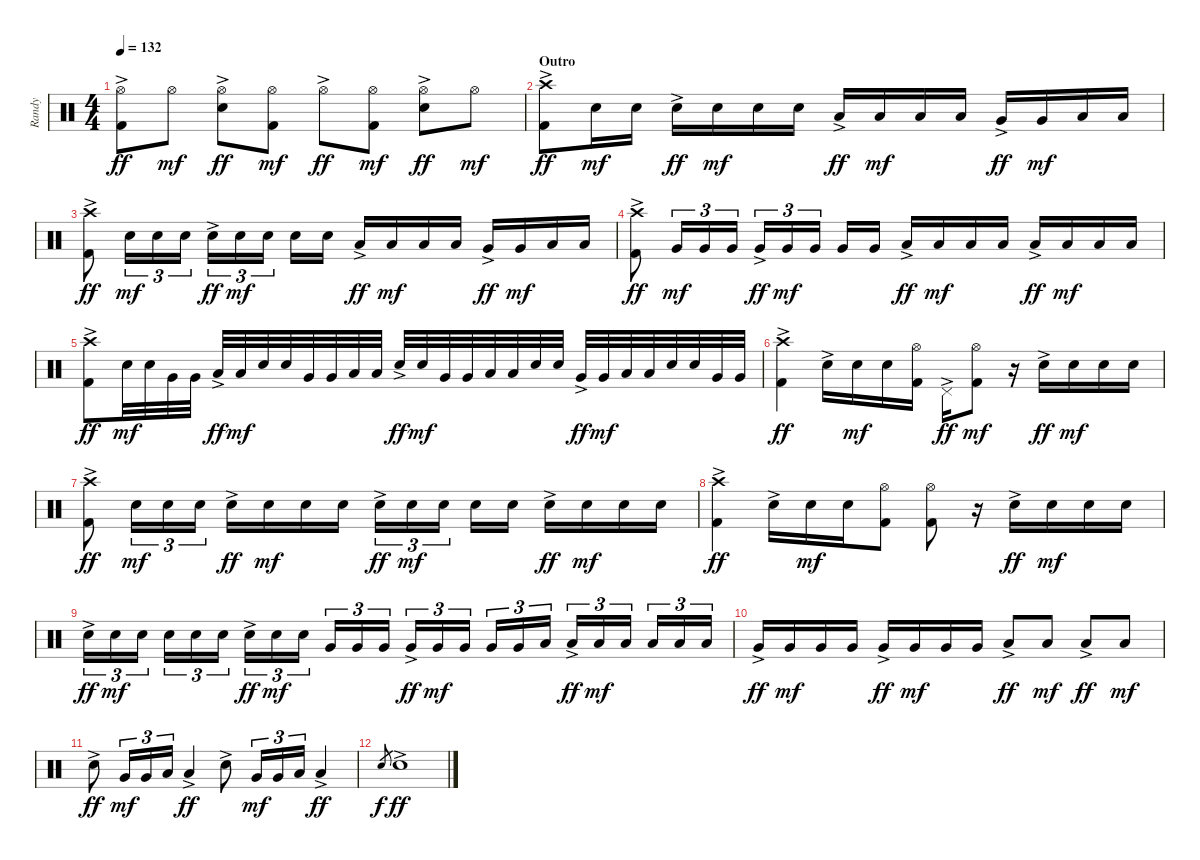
\track ("Randy" "Randy") {instrument percussion}
\staff {score}
\articulation defaults
\ts (4 4)
\tempo 132
\clef neutral
\ks c
("Hi-Hat (open)"{ac} "Kick (hit) 2").8{dy ff} "Hi-Hat (open)".8{dy mf} ("Hi-Hat (open)"{ac} "Snare (hit) 2").8{dy ff} ("Hi-Hat (open)" "Kick (hit) 2").8{dy mf} "Hi-Hat (open)"{ac}.8{dy ff} ("Hi-Hat (open)" "Kick (hit) 2").8{dy mf} ("Hi-Hat (open)"{ac} "Snare (hit) 2").8{dy ff} "Hi-Hat (open)".8{dy mf} |
\section ("" "Outro")
("Crash high (hit)"{ac} "Kick (hit) 2").8{dy ff} "Snare (hit) 2".16{dy mf} "Snare (hit) 2".16 "Snare (hit) 2"{ac}.16{dy ff} "Snare (hit) 2".16{dy mf} "Snare (hit) 2".16 "Snare (hit) 2".16 "Low Tom (hit)"{ac}.16{dy ff} "Low Tom (hit)".16{dy mf} "Low Tom (hit)".16 "Low Tom (hit)".16 "Very Low Tom (hit)"{ac}.16{dy ff} "Very Low Tom (hit)".16{dy mf} "Low Floor Tom (hit)".16 "Low Floor Tom (hit)".16 |
("Crash high (hit)" "Kick (hit) 2"{ac}).8{dy ff} "Snare (hit) 2".16{tu (3 2) dy mf} "Snare (hit) 2".16{tu (3 2)} "Snare (hit) 2".16{tu (3 2)} "Snare (hit) 2"{ac}.16{tu (3 2) dy ff} "Snare (hit) 2".16{tu (3 2) dy mf} "Snare (hit) 2".16{tu (3 2)} "Snare (hit) 2".16 "Snare (hit) 2".16 "Low Tom (hit)"{ac}.16{dy ff} "Low Tom (hit)".16{dy mf} "Low Tom (hit)".16 "Low Tom (hit)".16 "Very Low Tom (hit)"{ac}.16{dy ff} "Very Low Tom (hit)".16{dy mf} "Low Floor Tom (hit)".16 "Low Floor Tom (hit)".16 |
("Crash high (hit)" "Kick (hit) 2"{ac}).8{dy ff} "Very Low Tom (hit)".16{tu (3 2) dy mf} "Very Low Tom (hit)".16{tu (3 2)} "Very Low Tom (hit)".16{tu (3 2)} "Very Low Tom (hit)"{ac}.16{tu (3 2) dy ff} "Very Low Tom (hit)".16{tu (3 2) dy mf} "Very Low Tom (hit)".16{tu (3 2)} "Very Low Tom (hit)".16 "Very Low Tom (hit)".16 "Low Floor Tom (hit)"{ac}.16{dy ff} "Low Floor Tom (hit)".16{dy mf} "Low Floor Tom (hit)".16 "Low Floor Tom (hit)".16 "Low Floor Tom (hit)"{ac}.16{dy ff} "Low Floor Tom (hit)".16{dy mf} "Low Floor Tom (hit)".16 "Low Floor Tom (hit)".16 |
("Crash high (hit)" "Kick (hit) 2"{ac}).8{dy ff} "Snare (hit) 2".32{dy mf} "Snare (hit) 2".32 "Very Low Tom (hit)".32 "Very Low Tom (hit)".32 "Low Floor Tom (hit)"{ac}.32{dy ff} "Low Floor Tom (hit)".32{dy mf} "Snare (hit) 2".32 "Snare (hit) 2".32 "Very Low Tom (hit)".32 "Very Low Tom (hit)".32 "Low Floor Tom (hit)".32 "Low Floor Tom (hit)".32 "Snare (hit) 2"{ac}.32{dy ff} "Snare (hit) 2".32{dy mf} "Very Low Tom (hit)".32 "Very Low Tom (hit)".32 "Low Floor Tom (hit)".32 "Low Floor Tom (hit)".32 "Snare (hit) 2".32 "Snare (hit) 2".32 "Very Low Tom (hit)"{ac}.32{dy ff} "Very Low Tom (hit)".32{dy mf} "Low Floor Tom (hit)".32 "Low Floor Tom (hit)".32 "Snare (hit) 2".32 "Snare (hit) 2".32 "Very Low Tom (hit)".32 "Very Low Tom (hit)".32 |
("Crash high (hit)" "Kick (hit) 2"{ac}).4{dy ff} "Snare (hit) 2"{ac}.16 "Snare (hit) 2".16{dy mf} "Snare (hit) 2".16 ("Hi-Hat (open)" "Kick (hit) 2").16 "Pedal Hi-Hat (hit)"{ac}.16{dy ff} ("Hi-Hat (open)" "Kick (hit) 2").8{dy mf} r.16 "Snare (hit) 2"{ac}.16{dy ff} "Snare (hit) 2".16{dy mf} "Snare (hit) 2".16 "Snare (hit) 2".16 |
("Crash high (hit)" "Kick (hit) 2"{ac}).8{dy ff} "Snare (hit) 2".16{tu (3 2) dy mf} "Snare (hit) 2".16{tu (3 2)} "Snare (hit) 2".16{tu (3 2)} "Snare (hit) 2"{ac}.16{dy ff} "Snare (hit) 2".16{dy mf} "Snare (hit) 2".16 "Snare (hit) 2".16 "Snare (hit) 2"{ac}.16{tu (3 2) dy ff} "Snare (hit) 2".16{tu (3 2) dy mf} "Snare (hit) 2".16{tu (3 2)} "Snare (hit) 2".16 "Snare (hit) 2".16 "Snare (hit) 2"{ac}.16{dy ff} "Snare (hit) 2".16{dy mf} "Snare (hit) 2".16 "Snare (hit) 2".16 |
("Crash high (hit)" "Kick (hit) 2"{ac}).4{dy ff} "Snare (hit) 2"{ac}.16 "Snare (hit) 2".16{dy mf} "Snare (hit) 2".16 ("Hi-Hat (open)" "Kick (hit) 2").8 ("Hi-Hat (open)" "Kick (hit) 2").8 r.16 "Snare (hit) 2"{ac}.16{dy ff} "Snare (hit) 2".16{dy mf} "Snare (hit) 2".16 "Snare (hit) 2".16 |
"Snare (hit) 2"{ac}.16{tu (3 2) dy ff} "Snare (hit) 2".16{tu (3 2) dy mf} "Snare (hit) 2".16{tu (3 2)} "Snare (hit) 2".16{tu (3 2)} "Snare (hit) 2".16{tu (3 2)} "Snare (hit) 2".16{tu (3 2)} "Snare (hit) 2"{ac}.16{tu (3 2) dy ff} "Snare (hit) 2".16{tu (3 2) dy mf} "Snare (hit) 2".16{tu (3 2)} "Very Low Tom (hit)".16{tu (3 2)} "Very Low Tom (hit)".16{tu (3 2)} "Very Low Tom (hit)".16{tu (3 2)} "Very Low Tom (hit)"{ac}.16{tu (3 2) dy ff} "Very Low Tom (hit)".16{tu (3 2) dy mf} "Very Low Tom (hit)".16{tu (3 2)} "Very Low Tom (hit)".16{tu (3 2)} "Very Low Tom (hit)".16{tu (3 2)} "Low Floor Tom (hit)".16{tu (3 2)} "Low Floor Tom (hit)"{ac}.16{tu (3 2) dy ff} "Low Floor Tom (hit)".16{tu (3 2) dy mf} "Low Floor Tom (hit)".16{tu (3 2)} "Low Floor Tom (hit)".16{tu (3 2)} "Low Floor Tom (hit)".16{tu (3 2)} "Low Floor Tom (hit)".16{tu (3 2)} |
"Very Low Tom (hit)"{ac}.16{dy ff} "Very Low Tom (hit)".16{dy mf} "Very Low Tom (hit)".16 "Very Low Tom (hit)".16 "Very Low Tom (hit)"{ac}.16{dy ff} "Very Low Tom (hit)".16{dy mf} "Very Low Tom (hit)".16 "Very Low Tom (hit)".16 "Low Floor Tom (hit)"{ac}.8{dy ff} "Low Floor Tom (hit)".8{dy mf} "Low Floor Tom (hit)"{ac}.8{dy ff} "Low Floor Tom (hit)".8{dy mf} |
"Snare (hit) 2"{ac}.8{dy ff} "Very Low Tom (hit)".16{tu (3 2) dy mf} "Very Low Tom (hit)".16{tu (3 2)} "Low Floor Tom (hit)".16{tu (3 2)} "Low Floor Tom (hit)"{ac}.4{dy ff} "Snare (hit) 2"{ac}.8 "Very Low Tom (hit)".16{tu (3 2) dy mf} "Very Low Tom (hit)".16{tu (3 2)} "Low Floor Tom (hit)".16{tu (3 2)} "Low Floor Tom (hit)"{ac}.4{dy ff} |
"Snare (hit) 2".8{gr dy f} "Snare (hit) 2"{ac}.1{dy ff}
